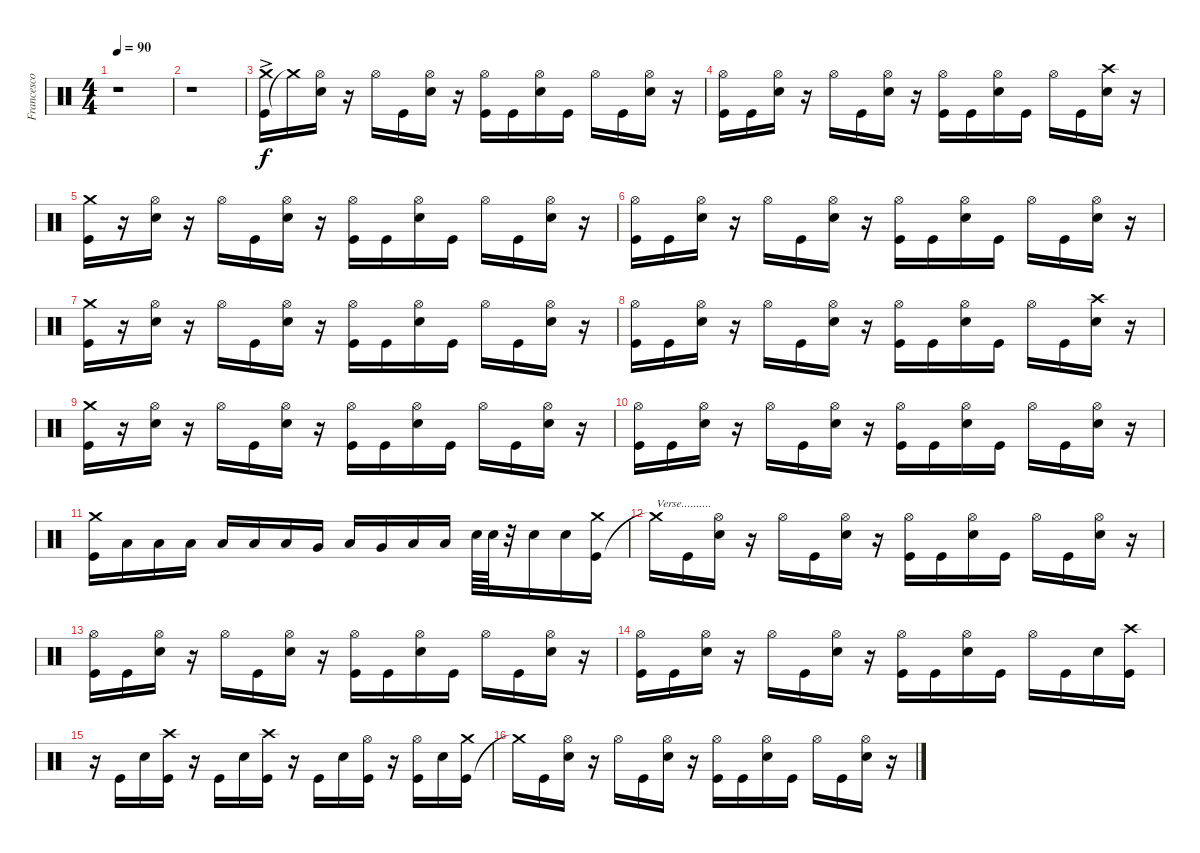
\track ("Francesco Jovino" "Francesco ") {instrument percussion}
\staff {score}
\articulation defaults
\ts (4 4)
\tempo 90
\clef neutral
\ks c
r.1{dy f} |
r.1 |
("Kick (hit)"{ac} "Crash medium (hit)"{ac}).16 "Crash medium (hit)"{t}.16 ("Snare (hit) 2" "Hi-Hat (open)").16 r.16 "Hi-Hat (open)".16 "Kick (hit)".16 ("Snare (hit) 2" "Hi-Hat (open)").16 r.16 ("Kick (hit)" "Hi-Hat (open)").16 "Kick (hit)".16 ("Snare (hit) 2" "Hi-Hat (open)").16 "Kick (hit)".16 "Hi-Hat (open)".16 "Kick (hit)".16 ("Snare (hit) 2" "Hi-Hat (open)").16 r.16 |
("Hi-Hat (open)" "Kick (hit)").16 "Kick (hit)".16 ("Snare (hit) 2" "Hi-Hat (open)").16 r.16 "Hi-Hat (open)".16 "Kick (hit)".16 ("Snare (hit) 2" "Hi-Hat (open)").16 r.16 ("Kick (hit)" "Hi-Hat (open)").16 "Kick (hit)".16 ("Snare (hit) 2" "Hi-Hat (open)").16 "Kick (hit)".16 "Hi-Hat (open)".16 "Kick (hit)".16 ("Snare (hit) 2" "Crash high (hit)").16 r.16 |
("Kick (hit)" "Crash medium (hit)").16 r.16 ("Snare (hit) 2" "Hi-Hat (open)").16 r.16 "Hi-Hat (open)".16 "Kick (hit)".16 ("Snare (hit) 2" "Hi-Hat (open)").16 r.16 ("Kick (hit)" "Hi-Hat (open)").16 "Kick (hit)".16 ("Snare (hit) 2" "Hi-Hat (open)").16 "Kick (hit)".16 "Hi-Hat (open)".16 "Kick (hit)".16 ("Snare (hit) 2" "Hi-Hat (open)").16 r.16 |
("Kick (hit)" "Hi-Hat (open)").16 "Kick (hit)".16 ("Snare (hit) 2" "Hi-Hat (open)").16 r.16 "Hi-Hat (open)".16 "Kick (hit)".16 ("Snare (hit) 2" "Hi-Hat (open)").16 r.16 ("Kick (hit)" "Hi-Hat (open)").16 "Kick (hit)".16 ("Snare (hit) 2" "Hi-Hat (open)").16 "Kick (hit)".16 "Hi-Hat (open)".16 "Kick (hit)".16 ("Snare (hit) 2" "Hi-Hat (open)").16 r.16 |
("Kick (hit)" "Crash medium (hit)").16 r.16 ("Snare (hit) 2" "Hi-Hat (open)").16 r.16 "Hi-Hat (open)".16 "Kick (hit)".16 ("Snare (hit) 2" "Hi-Hat (open)").16 r.16 ("Kick (hit)" "Hi-Hat (open)").16 "Kick (hit)".16 ("Snare (hit) 2" "Hi-Hat (open)").16 "Kick (hit)".16 "Hi-Hat (open)".16 "Kick (hit)".16 ("Snare (hit) 2" "Hi-Hat (open)").16 r.16 |
("Hi-Hat (open)" "Kick (hit)").16 "Kick (hit)".16 ("Snare (hit) 2" "Hi-Hat (open)").16 r.16 "Hi-Hat (open)".16 "Kick (hit)".16 ("Snare (hit) 2" "Hi-Hat (open)").16 r.16 ("Kick (hit)" "Hi-Hat (open)").16 "Kick (hit)".16 ("Snare (hit) 2" "Hi-Hat (open)").16 "Kick (hit)".16 "Hi-Hat (open)".16 "Kick (hit)".16 ("Snare (hit) 2" "Crash high (hit)").16 r.16 |
("Kick (hit)" "Crash medium (hit)").16 r.16 ("Snare (hit) 2" "Hi-Hat (open)").16 r.16 "Hi-Hat (open)".16 "Kick (hit)".16 ("Snare (hit) 2" "Hi-Hat (open)").16 r.16 ("Kick (hit)" "Hi-Hat (open)").16 "Kick (hit)".16 ("Snare (hit) 2" "Hi-Hat (open)").16 "Kick (hit)".16 "Hi-Hat (open)".16 "Kick (hit)".16 ("Snare (hit) 2" "Hi-Hat (open)").16 r.16 |
("Hi-Hat (open)" "Kick (hit)").16 "Kick (hit)".16 ("Snare (hit) 2" "Hi-Hat (open)").16 r.16 "Hi-Hat (open)".16 "Kick (hit)".16 ("Snare (hit) 2" "Hi-Hat (open)").16 r.16 ("Kick (hit)" "Hi-Hat (open)").16 "Kick (hit)".16 ("Snare (hit) 2" "Hi-Hat (open)").16 "Kick (hit)".16 "Hi-Hat (open)".16 "Kick (hit)".16 ("Snare (hit) 2" "Hi-Hat (open)").16 r.16 |
("Kick (hit)" "Crash medium (hit)").16 "Low Tom (hit)".16 "Low Floor Tom (hit)".16 "Low Tom (hit)".16 "Low Floor Tom (hit)".16 "Low Floor Tom (hit)".16 "Low Tom (hit)".16 "Very Low Tom (hit)".16 "Low Tom (hit)".16 "Very Low Tom (hit)".16 "Low Floor Tom (hit)".16 "Low Floor Tom (hit)".16 "Snare (hit) 2".64 "Snare (hit) 2".64 r.32 "Snare (hit) 2".16 "Snare (hit) 2".16 ("Kick (hit)" "Crash medium (hit)").16 |
"Crash medium (hit)"{t}.16{txt "Verse.........."} "Kick (hit)".16 ("Snare (hit) 2" "Hi-Hat (open)").16 r.16 "Hi-Hat (open)".16 "Kick (hit)".16 ("Snare (hit) 2" "Hi-Hat (open)").16 r.16 ("Kick (hit)" "Hi-Hat (open)").16 "Kick (hit)".16 ("Snare (hit) 2" "Hi-Hat (open)").16 "Kick (hit)".16 "Hi-Hat (open)".16 "Kick (hit)".16 ("Snare (hit) 2" "Hi-Hat (open)").16 r.16 |
("Hi-Hat (open)" "Kick (hit)").16 "Kick (hit)".16 ("Snare (hit) 2" "Hi-Hat (open)").16 r.16 "Hi-Hat (open)".16 "Kick (hit)".16 ("Snare (hit) 2" "Hi-Hat (open)").16 r.16 ("Kick (hit)" "Hi-Hat (open)").16 "Kick (hit)".16 ("Snare (hit) 2" "Hi-Hat (open)").16 "Kick (hit)".16 "Hi-Hat (open)".16 "Kick (hit)".16 ("Snare (hit) 2" "Hi-Hat (open)").16 r.16 |
("Hi-Hat (open)" "Kick (hit)").16 "Kick (hit)".16 ("Snare (hit) 2" "Hi-Hat (open)").16 r.16 "Hi-Hat (open)".16 "Kick (hit)".16 ("Snare (hit) 2" "Hi-Hat (open)").16 r.16 ("Kick (hit)" "Hi-Hat (open)").16 "Kick (hit)".16 ("Snare (hit) 2" "Hi-Hat (open)").16 "Kick (hit)".16 "Hi-Hat (open)".16 "Kick (hit)".16 "Snare (hit) 2".16 ("Kick (hit)" "Crash high (hit)").16 |
r.16 "Kick (hit)".16 "Snare (hit) 2".16 ("Crash high (hit)" "Kick (hit)").16 r.16 "Kick (hit)".16 "Snare (hit) 2".16 ("Crash high (hit)" "Kick (hit)").16 r.16 "Kick (hit)".16 "Snare (hit) 2".16 ("Kick (hit)" "Hi-Hat (open)").16 r.16 ("Kick (hit)" "Hi-Hat (open)").16 "Snare (hit) 2".16 ("Kick (hit)" "Crash medium (hit)").16 |
"Crash medium (hit)"{t}.16 "Kick (hit)".16 ("Snare (hit) 2" "Hi-Hat (open)").16 r.16 "Hi-Hat (open)".16 "Kick (hit)".16 ("Snare (hit) 2" "Hi-Hat (open)").16 r.16 ("Kick (hit)" "Hi-Hat (open)").16 "Kick (hit)".16 ("Snare (hit) 2" "Hi-Hat (open)").16 "Kick (hit)".16 "Hi-Hat (open)".16 "Kick (hit)".16 ("Snare (hit) 2" "Hi-Hat (open)").16 r.16
